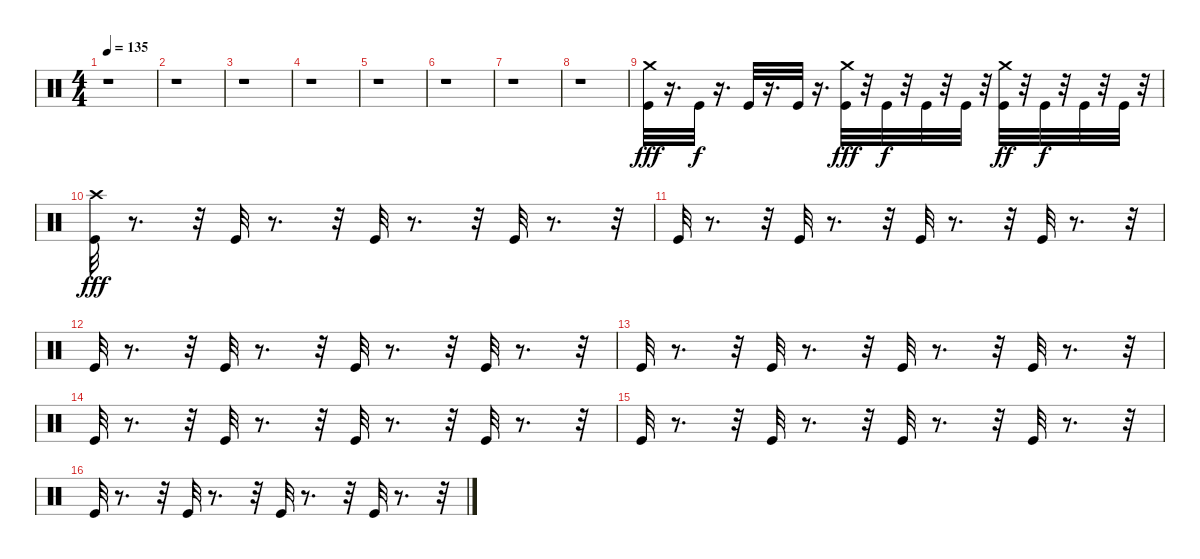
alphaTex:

\track "" {instrument percussion}
\staff {score}
\articulation defaults
\ts (4 4)
\tempo 135
\clef neutral
\ks c
r.1{dy fff} |
r.1 |
r.1 |
r.1 |
r.1 |
r.1 |
r.1 |
r.1 |
("Crash medium (hit)" "Kick (hit)").32 r.16{d} "Kick (hit)".32{dy f} r.16{d} "Kick (hit)".32 r.16{d} "Kick (hit)".32 r.16{d} ("Crash medium (hit)" "Kick (hit)").32{dy fff} r.32 "Kick (hit)".32{dy f} r.32 "Kick (hit)".32 r.32 "Kick (hit)".32 r.32 ("Crash medium (hit)" "Kick (hit)").32{dy ff} r.32 "Kick (hit)".32{dy f} r.32 "Kick (hit)".32 r.32 "Kick (hit)".32 r.32 |
("Kick (hit)" "Crash high (hit)").32{dy fff} r.8{d} r.32 "Kick (hit)".32 r.8{d} r.32 "Kick (hit)".32 r.8{d} r.32 "Kick (hit)".32 r.8{d} r.32 |
"Kick (hit)".32 r.8{d} r.32 "Kick (hit)".32 r.8{d} r.32 "Kick (hit)".32 r.8{d} r.32 "Kick (hit)".32 r.8{d} r.32 |
"Kick (hit)".32 r.8{d} r.32 "Kick (hit)".32 r.8{d} r.32 "Kick (hit)".32 r.8{d} r.32 "Kick (hit)".32 r.8{d} r.32 |
"Kick (hit)".32 r.8{d} r.32 "Kick (hit)".32 r.8{d} r.32 "Kick (hit)".32 r.8{d} r.32 "Kick (hit)".32 r.8{d} r.32 |
"Kick (hit)".32 r.8{d} r.32 "Kick (hit)".32 r.8{d} r.32 "Kick (hit)".32 r.8{d} r.32 "Kick (hit)".32 r.8{d} r.32 |
"Kick (hit)".32 r.8{d} r.32 "Kick (hit)".32 r.8{d} r.32 "Kick (hit)".32 r.8{d} r.32 "Kick (hit)".32 r.8{d} r.32 |
"Kick (hit)".32 r.8{d} r.32 "Kick (hit)".32 r.8{d} r.32 "Kick (hit)".32 r.8{d} r.32 "Kick (hit)".32 r.8{d} r.32
